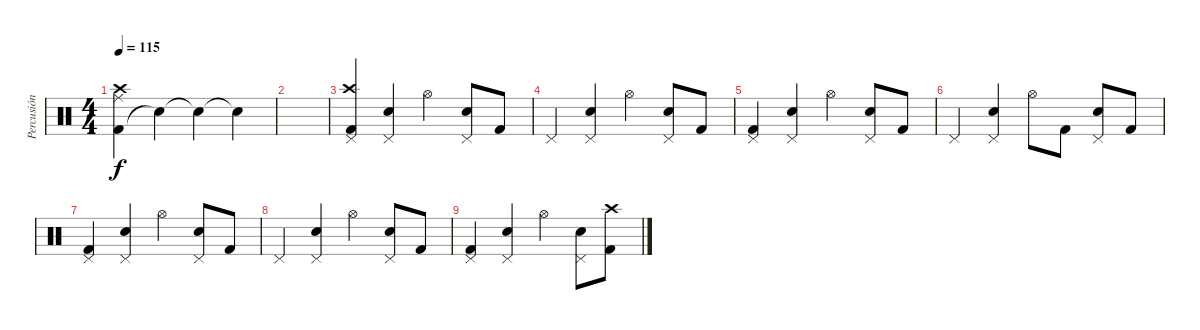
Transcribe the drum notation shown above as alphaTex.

\track ("Percusión" "Percusión") {instrument percussion}
\staff {score}
\articulation defaults
\ts (4 4)
\tempo 115
\clef neutral
\ks c
("Kick (hit) 2" "Ride (middle)" "Crash high (hit)").4{dy f} "Snare (hit)"{t}.4 "Snare (hit)"{t}.4 "Snare (hit)"{t}.4 |
|
("Kick (hit) 2" "Pedal Hi-Hat (hit)" "Crash high (hit)").4 ("Snare (hit) 2" "Pedal Hi-Hat (hit)").4 "Hi-Hat (open)".4 ("Snare (hit) 2" "Pedal Hi-Hat (hit)").8 "Kick (hit) 2".8 |
"Pedal Hi-Hat (hit)".4 ("Snare (hit) 2" "Pedal Hi-Hat (hit)").4 "Hi-Hat (open)".4 ("Snare (hit) 2" "Pedal Hi-Hat (hit)").8 "Kick (hit) 2".8 |
("Kick (hit) 2" "Pedal Hi-Hat (hit)").4 ("Snare (hit) 2" "Pedal Hi-Hat (hit)").4 "Hi-Hat (open)".4 ("Snare (hit) 2" "Pedal Hi-Hat (hit)").8 "Kick (hit) 2".8 |
"Pedal Hi-Hat (hit)".4 ("Snare (hit) 2" "Pedal Hi-Hat (hit)").4 "Hi-Hat (open)".8 "Kick (hit) 2".8 ("Snare (hit) 2" "Pedal Hi-Hat (hit)").8 "Kick (hit) 2".8 |
("Kick (hit) 2" "Pedal Hi-Hat (hit)").4 ("Snare (hit) 2" "Pedal Hi-Hat (hit)").4 "Hi-Hat (open)".4 ("Snare (hit) 2" "Pedal Hi-Hat (hit)").8 "Kick (hit) 2".8 |
"Pedal Hi-Hat (hit)".4 ("Snare (hit) 2" "Pedal Hi-Hat (hit)").4 "Hi-Hat (open)".4 ("Snare (hit) 2" "Pedal Hi-Hat (hit)").8 "Kick (hit) 2".8 |
("Kick (hit) 2" "Pedal Hi-Hat (hit)").4 ("Snare (hit) 2" "Pedal Hi-Hat (hit)").4 "Hi-Hat (open)".4 ("Snare (hit) 2" "Pedal Hi-Hat (hit)").8 ("Kick (hit) 2" "Crash high (hit)").8
